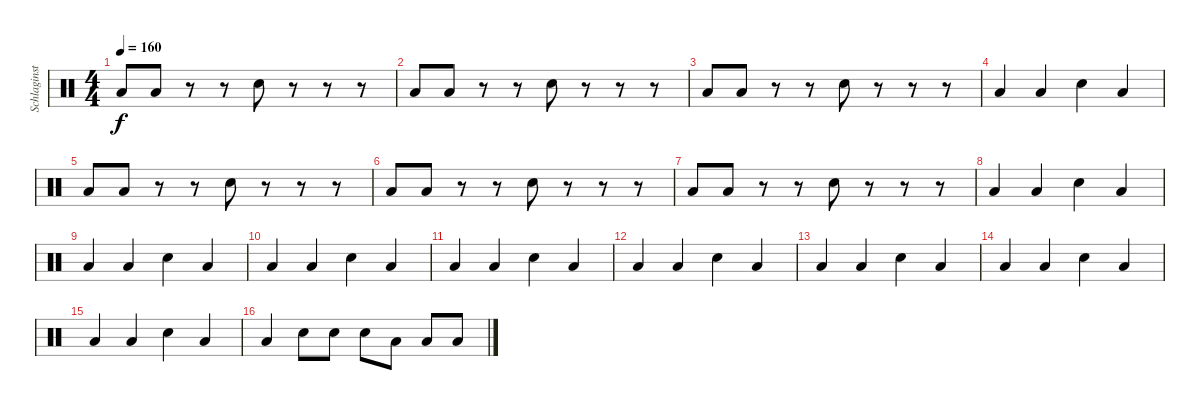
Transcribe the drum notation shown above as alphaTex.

\track ("Schlaginstrumente - Auswahl" "Schlaginst") {instrument percussion}
\staff {score}
\articulation defaults
\ts (4 4)
\tempo 160
\clef neutral
\ks c "Low Floor Tom (hit)".8{dy f} "Low Floor Tom (hit)".8
r.8 r.8 "Snare (hit) 2".8 r.8 r.8 r.8 |
"Low Floor Tom (hit)".8 "Low Floor Tom (hit)".8 r.8 r.8 "Snare (hit) 2".8 r.8 r.8 r.8 |
"Low Floor Tom (hit)".8 "Low Floor Tom (hit)".8 r.8 r.8 "Snare (hit) 2".8 r.8 r.8 r.8 |
"Low Floor Tom (hit)".4 "Low Floor Tom (hit)".4 "Snare (hit) 2".4 "Low Floor Tom (hit)".4 |
"Low Floor Tom (hit)".8 "Low Floor Tom (hit)".8 r.8 r.8 "Snare (hit) 2".8 r.8 r.8 r.8 |
"Low Floor Tom (hit)".8 "Low Floor Tom (hit)".8 r.8 r.8 "Snare (hit) 2".8 r.8 r.8 r.8 |
"Low Floor Tom (hit)".8 "Low Floor Tom (hit)".8 r.8 r.8 "Snare (hit) 2".8 r.8 r.8 r.8 |
"Low Floor Tom (hit)".4 "Low Floor Tom (hit)".4 "Snare (hit) 2".4 "Low Floor Tom (hit)".4 |
"Low Floor Tom (hit)".4 "Low Floor Tom (hit)".4 "Snare (hit) 2".4 "Low Floor Tom (hit)".4 |
"Low Floor Tom (hit)".4 "Low Floor Tom (hit)".4 "Snare (hit) 2".4 "Low Floor Tom (hit)".4 |
"Low Floor Tom (hit)".4 "Low Floor Tom (hit)".4 "Snare (hit) 2".4 "Low Floor Tom (hit)".4 |
"Low Floor Tom (hit)".4 "Low Floor Tom (hit)".4 "Snare (hit) 2".4 "Low Floor Tom (hit)".4 |
"Low Floor Tom (hit)".4 "Low Floor Tom (hit)".4 "Snare (hit) 2".4 "Low Floor Tom (hit)".4 |
"Low Floor Tom (hit)".4 "Low Floor Tom (hit)".4 "Snare (hit) 2".4 "Low Floor Tom (hit)".4 |
"Low Floor Tom (hit)".4 "Low Floor Tom (hit)".4 "Snare (hit) 2".4 "Low Floor Tom (hit)".4 |
"Low Floor Tom (hit)".4 "Snare (hit) 2".8 "Snare (hit) 2".8 "Snare (hit) 2".8 "Low Floor Tom (hit)".8 "Low Floor Tom (hit)".8 "Low Floor Tom (hit)".8
